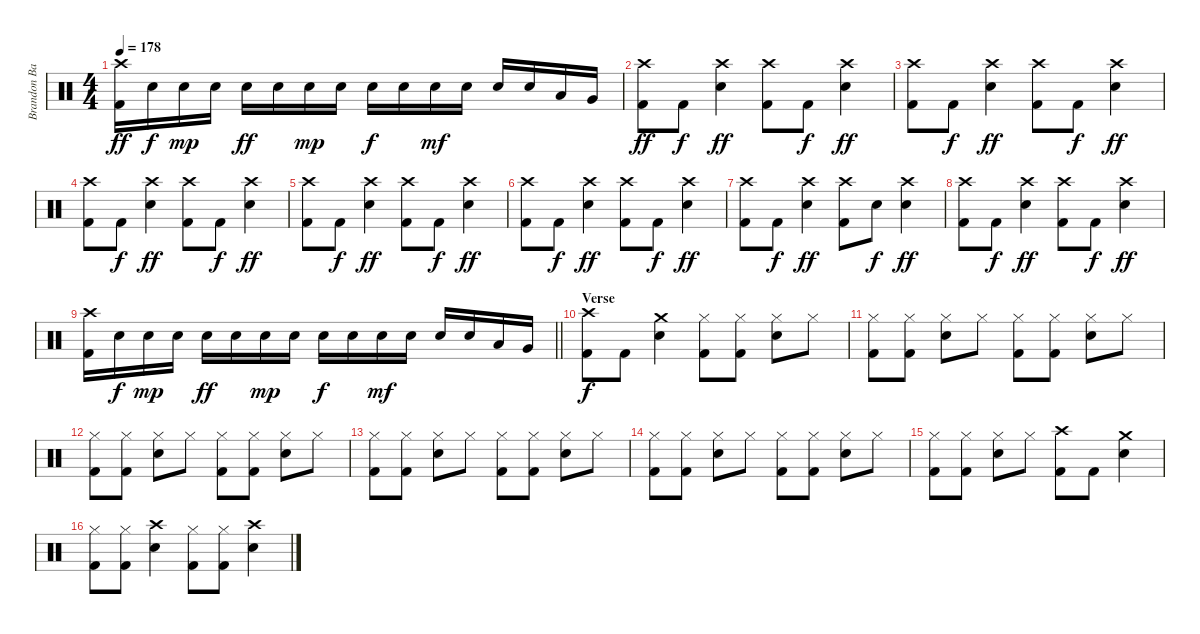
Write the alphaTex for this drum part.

\track ("Brandon Barnes - Drums" "Brandon Ba") {instrument percussion}
\staff {score}
\articulation defaults
\ts (4 4)
\tempo 178
\clef neutral
\ks c
("Crash high (hit)" "Kick (hit) 2").16{dy ff} "Snare (hit) 2".16{dy f} "Snare (hit) 2".16{dy mp} "Snare (hit) 2".16 "Snare (hit) 2".16{dy ff} "Snare (hit) 2".16 "Snare (hit) 2".16{dy mp} "Snare (hit) 2".16 "Snare (hit) 2".16{dy f} "Snare (hit) 2".16 "Snare (hit) 2".16{dy mf} "Snare (hit) 2".16 "Snare (hit) 2".16 "Snare (hit) 2".16 "Low Tom (hit)".16 "Very Low Tom (hit)".16 |
("Crash high (hit)" "Kick (hit) 2").8{dy ff} "Kick (hit) 2".8{dy f} ("Snare (hit) 2" "Crash high (hit)").4{dy ff} ("Crash high (hit)" "Kick (hit) 2").8 "Kick (hit) 2".8{dy f} ("Snare (hit) 2" "Crash high (hit)").4{dy ff} |
("Crash high (hit)" "Kick (hit) 2").8 "Kick (hit) 2".8{dy f} ("Snare (hit) 2" "Crash high (hit)").4{dy ff} ("Crash high (hit)" "Kick (hit) 2").8 "Kick (hit) 2".8{dy f} ("Snare (hit) 2" "Crash high (hit)").4{dy ff} |
("Crash high (hit)" "Kick (hit) 2").8 "Kick (hit) 2".8{dy f} ("Snare (hit) 2" "Crash high (hit)").4{dy ff} ("Crash high (hit)" "Kick (hit) 2").8 "Kick (hit) 2".8{dy f} ("Snare (hit) 2" "Crash high (hit)").4{dy ff} |
("Crash high (hit)" "Kick (hit) 2").8 "Kick (hit) 2".8{dy f} ("Snare (hit) 2" "Crash high (hit)").4{dy ff} ("Crash high (hit)" "Kick (hit) 2").8 "Kick (hit) 2".8{dy f} ("Snare (hit) 2" "Crash high (hit)").4{dy ff} |
("Crash high (hit)" "Kick (hit) 2").8 "Kick (hit) 2".8{dy f} ("Snare (hit) 2" "Crash high (hit)").4{dy ff} ("Crash high (hit)" "Kick (hit) 2").8 "Kick (hit) 2".8{dy f} ("Snare (hit) 2" "Crash high (hit)").4{dy ff} |
("Crash high (hit)" "Kick (hit) 2").8 "Kick (hit) 2".8{dy f} ("Snare (hit) 2" "Crash high (hit)").4{dy ff} ("Crash high (hit)" "Kick (hit) 2").8 "Snare (hit) 2".8{dy f} ("Snare (hit) 2" "Crash high (hit)").4{dy ff} |
("Crash high (hit)" "Kick (hit) 2").8 "Kick (hit) 2".8{dy f} ("Snare (hit) 2" "Crash high (hit)").4{dy ff} ("Crash high (hit)" "Kick (hit) 2").8 "Kick (hit) 2".8{dy f} ("Snare (hit) 2" "Crash high (hit)").4{dy ff} |
\barLineRight lightlight
("Crash high (hit)" "Kick (hit) 2").16 "Snare (hit) 2".16{dy f} "Snare (hit) 2".16{dy mp} "Snare (hit) 2".16 "Snare (hit) 2".16{dy ff} "Snare (hit) 2".16 "Snare (hit) 2".16{dy mp} "Snare (hit) 2".16 "Snare (hit) 2".16{dy f} "Snare (hit) 2".16 "Snare (hit) 2".16{dy mf} "Snare (hit) 2".16 "Snare (hit) 2".16 "Snare (hit) 2".16 "Low Tom (hit)".16 "Very Low Tom (hit)".16 |
\section ("" "Verse")
("Kick (hit) 2" "Crash high (hit)").8{dy f} "Kick (hit) 2".8 ("Snare (hit) 2" "Crash medium (hit)").4 ("Kick (hit) 2" "Hi-Hat (closed)").8 ("Kick (hit) 2" "Hi-Hat (closed)").8 ("Snare (hit) 2" "Hi-Hat (closed)").8 "Hi-Hat (closed)".8 |
("Kick (hit) 2" "Hi-Hat (closed)").8 ("Kick (hit) 2" "Hi-Hat (closed)").8 ("Snare (hit) 2" "Hi-Hat (closed)").8 "Hi-Hat (closed)".8 ("Kick (hit) 2" "Hi-Hat (closed)").8 ("Kick (hit) 2" "Hi-Hat (closed)").8 ("Snare (hit) 2" "Hi-Hat (closed)").8 "Hi-Hat (closed)".8 |
("Kick (hit) 2" "Hi-Hat (closed)").8 ("Kick (hit) 2" "Hi-Hat (closed)").8 ("Snare (hit) 2" "Hi-Hat (closed)").8 "Hi-Hat (closed)".8 ("Kick (hit) 2" "Hi-Hat (closed)").8 ("Kick (hit) 2" "Hi-Hat (closed)").8 ("Snare (hit) 2" "Hi-Hat (closed)").8 "Hi-Hat (closed)".8 |
("Kick (hit) 2" "Hi-Hat (closed)").8 ("Kick (hit) 2" "Hi-Hat (closed)").8 ("Snare (hit) 2" "Hi-Hat (closed)").8 "Hi-Hat (closed)".8 ("Kick (hit) 2" "Hi-Hat (closed)").8 ("Kick (hit) 2" "Hi-Hat (closed)").8 ("Snare (hit) 2" "Hi-Hat (closed)").8 "Hi-Hat (closed)".8 |
("Kick (hit) 2" "Hi-Hat (closed)").8 ("Kick (hit) 2" "Hi-Hat (closed)").8 ("Snare (hit) 2" "Hi-Hat (closed)").8 "Hi-Hat (closed)".8 ("Kick (hit) 2" "Hi-Hat (closed)").8 ("Kick (hit) 2" "Hi-Hat (closed)").8 ("Snare (hit) 2" "Hi-Hat (closed)").8 "Hi-Hat (closed)".8 |
("Kick (hit) 2" "Hi-Hat (closed)").8 ("Kick (hit) 2" "Hi-Hat (closed)").8 ("Snare (hit) 2" "Hi-Hat (closed)").8 "Hi-Hat (closed)".8 ("Kick (hit) 2" "Crash high (hit)").8 "Kick (hit) 2".8 ("Snare (hit) 2" "Crash medium (hit)").4 |
("Kick (hit) 2" "Hi-Hat (closed)").8 ("Kick (hit) 2" "Hi-Hat (closed)").8 ("Snare (hit) 2" "Crash high (hit)").4 ("Kick (hit) 2" "Hi-Hat (closed)").8 ("Kick (hit) 2" "Hi-Hat (closed)").8 ("Snare (hit) 2" "Crash high (hit)").4
